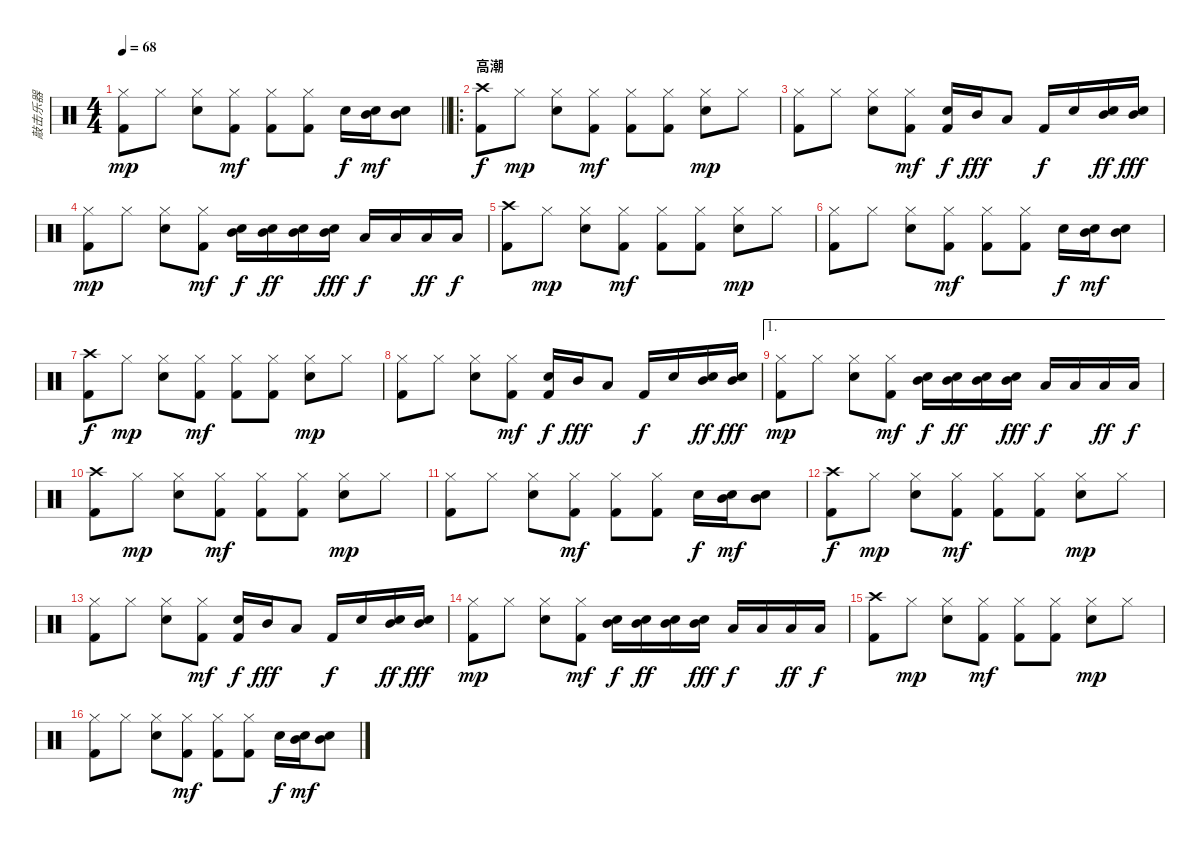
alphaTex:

\track ("敲击乐器" "敲击乐器") {instrument percussion}
\staff {score}
\articulation defaults
\ts (4 4)
\tempo 68
\clef neutral
\barLineRight lightlight
\ks c
("Hi-Hat (closed)" "Kick (hit) 2").8{dy mp} "Hi-Hat (closed)".8 ("Hi-Hat (closed)" "Electric Snare (hit)").8 ("Hi-Hat (closed)" "Kick (hit) 2").8{dy mf} ("Hi-Hat (closed)" "Kick (hit) 2").8 ("Hi-Hat (closed)" "Kick (hit) 2").8 "Electric Snare (hit)".16{dy f} ("Mid Tom (hit)" "Snare (hit) 2").16{dy mf} ("Mid Tom (hit)" "Snare (hit) 2").8 |
\ro
\section ("" "高潮")
("Crash high (hit)" "Kick (hit) 2").8{dy f} "Hi-Hat (closed)".8{dy mp} ("Hi-Hat (closed)" "Electric Snare (hit)").8 ("Hi-Hat (closed)" "Kick (hit) 2").8{dy mf} ("Hi-Hat (closed)" "Kick (hit) 2").8 ("Hi-Hat (closed)" "Kick (hit) 2").8 ("Hi-Hat (closed)" "Electric Snare (hit)").8{dy mp} "Hi-Hat (closed)".8 |
("Hi-Hat (closed)" "Kick (hit) 2").8 "Hi-Hat (closed)".8 ("Hi-Hat (closed)" "Electric Snare (hit)").8 ("Hi-Hat (closed)" "Kick (hit) 2").8{dy mf} ("Electric Snare (hit)" "Kick (hit) 2").16{dy f} "Mid Tom (hit)".16{dy fff} "Low Tom (hit)".8 "Kick (hit) 2".16{dy f} "Snare (hit) 2".16 ("Mid Tom (hit)" "Snare (hit) 2").16{dy ff} ("Mid Tom (hit)" "Snare (hit) 2").16{dy fff} |
("Hi-Hat (closed)" "Kick (hit) 2").8{dy mp} "Hi-Hat (closed)".8 ("Hi-Hat (closed)" "Electric Snare (hit)").8 ("Hi-Hat (closed)" "Kick (hit) 2").8{dy mf} ("Mid Tom (hit)" "Snare (hit) 2").16{dy f} ("Mid Tom (hit)" "Snare (hit) 2").16{dy ff} ("Mid Tom (hit)" "Snare (hit) 2").16 ("Mid Tom (hit)" "Snare (hit) 2").16{dy fff} "Low Tom (hit)".16{dy f} "Low Tom (hit)".16 "Low Tom (hit)".16{dy ff} "Low Tom (hit)".16{dy f} |
("Crash high (hit)" "Kick (hit) 2").8 "Hi-Hat (closed)".8{dy mp} ("Hi-Hat (closed)" "Electric Snare (hit)").8 ("Hi-Hat (closed)" "Kick (hit) 2").8{dy mf} ("Hi-Hat (closed)" "Kick (hit) 2").8 ("Hi-Hat (closed)" "Kick (hit) 2").8 ("Hi-Hat (closed)" "Electric Snare (hit)").8{dy mp} "Hi-Hat (closed)".8 |
("Hi-Hat (closed)" "Kick (hit) 2").8 "Hi-Hat (closed)".8 ("Hi-Hat (closed)" "Electric Snare (hit)").8 ("Hi-Hat (closed)" "Kick (hit) 2").8{dy mf} ("Hi-Hat (closed)" "Kick (hit) 2").8 ("Hi-Hat (closed)" "Kick (hit) 2").8 "Electric Snare (hit)".16{dy f} ("Mid Tom (hit)" "Snare (hit) 2").16{dy mf} ("Mid Tom (hit)" "Snare (hit) 2").8 |
("Crash high (hit)" "Kick (hit) 2").8{dy f} "Hi-Hat (closed)".8{dy mp} ("Hi-Hat (closed)" "Electric Snare (hit)").8 ("Hi-Hat (closed)" "Kick (hit) 2").8{dy mf} ("Hi-Hat (closed)" "Kick (hit) 2").8 ("Hi-Hat (closed)" "Kick (hit) 2").8 ("Hi-Hat (closed)" "Electric Snare (hit)").8{dy mp} "Hi-Hat (closed)".8 |
("Hi-Hat (closed)" "Kick (hit) 2").8 "Hi-Hat (closed)".8 ("Hi-Hat (closed)" "Electric Snare (hit)").8 ("Hi-Hat (closed)" "Kick (hit) 2").8{dy mf} ("Electric Snare (hit)" "Kick (hit) 2").16{dy f} "Mid Tom (hit)".16{dy fff} "Low Tom (hit)".8 "Kick (hit) 2".16{dy f} "Snare (hit) 2".16 ("Mid Tom (hit)" "Snare (hit) 2").16{dy ff} ("Mid Tom (hit)" "Snare (hit) 2").16{dy fff} |
\ae 1
("Hi-Hat (closed)" "Kick (hit) 2").8{dy mp} "Hi-Hat (closed)".8 ("Hi-Hat (closed)" "Electric Snare (hit)").8 ("Hi-Hat (closed)" "Kick (hit) 2").8{dy mf} ("Mid Tom (hit)" "Snare (hit) 2").16{dy f} ("Mid Tom (hit)" "Snare (hit) 2").16{dy ff} ("Mid Tom (hit)" "Snare (hit) 2").16 ("Mid Tom (hit)" "Snare (hit) 2").16{dy fff} "Low Tom (hit)".16{dy f} "Low Tom (hit)".16 "Low Tom (hit)".16{dy ff} "Low Tom (hit)".16{dy f} |
("Crash high (hit)" "Kick (hit) 2").8 "Hi-Hat (closed)".8{dy mp} ("Hi-Hat (closed)" "Electric Snare (hit)").8 ("Hi-Hat (closed)" "Kick (hit) 2").8{dy mf} ("Hi-Hat (closed)" "Kick (hit) 2").8 ("Hi-Hat (closed)" "Kick (hit) 2").8 ("Hi-Hat (closed)" "Electric Snare (hit)").8{dy mp} "Hi-Hat (closed)".8 |
("Hi-Hat (closed)" "Kick (hit) 2").8 "Hi-Hat (closed)".8 ("Hi-Hat (closed)" "Electric Snare (hit)").8 ("Hi-Hat (closed)" "Kick (hit) 2").8{dy mf} ("Hi-Hat (closed)" "Kick (hit) 2").8 ("Hi-Hat (closed)" "Kick (hit) 2").8 "Electric Snare (hit)".16{dy f} ("Mid Tom (hit)" "Snare (hit) 2").16{dy mf} ("Mid Tom (hit)" "Snare (hit) 2").8 |
("Crash high (hit)" "Kick (hit) 2").8{dy f} "Hi-Hat (closed)".8{dy mp} ("Hi-Hat (closed)" "Electric Snare (hit)").8 ("Hi-Hat (closed)" "Kick (hit) 2").8{dy mf} ("Hi-Hat (closed)" "Kick (hit) 2").8 ("Hi-Hat (closed)" "Kick (hit) 2").8 ("Hi-Hat (closed)" "Electric Snare (hit)").8{dy mp} "Hi-Hat (closed)".8 |
("Hi-Hat (closed)" "Kick (hit) 2").8 "Hi-Hat (closed)".8 ("Hi-Hat (closed)" "Electric Snare (hit)").8 ("Hi-Hat (closed)" "Kick (hit) 2").8{dy mf} ("Electric Snare (hit)" "Kick (hit) 2").16{dy f} "Mid Tom (hit)".16{dy fff} "Low Tom (hit)".8 "Kick (hit) 2".16{dy f} "Snare (hit) 2".16 ("Mid Tom (hit)" "Snare (hit) 2").16{dy ff} ("Mid Tom (hit)" "Snare (hit) 2").16{dy fff} |
("Hi-Hat (closed)" "Kick (hit) 2").8{dy mp} "Hi-Hat (closed)".8 ("Hi-Hat (closed)" "Electric Snare (hit)").8 ("Hi-Hat (closed)" "Kick (hit) 2").8{dy mf} ("Mid Tom (hit)" "Snare (hit) 2").16{dy f} ("Mid Tom (hit)" "Snare (hit) 2").16{dy ff} ("Mid Tom (hit)" "Snare (hit) 2").16 ("Mid Tom (hit)" "Snare (hit) 2").16{dy fff} "Low Tom (hit)".16{dy f} "Low Tom (hit)".16 "Low Tom (hit)".16{dy ff} "Low Tom (hit)".16{dy f} |
("Crash high (hit)" "Kick (hit) 2").8 "Hi-Hat (closed)".8{dy mp} ("Hi-Hat (closed)" "Electric Snare (hit)").8 ("Hi-Hat (closed)" "Kick (hit) 2").8{dy mf} ("Hi-Hat (closed)" "Kick (hit) 2").8 ("Hi-Hat (closed)" "Kick (hit) 2").8 ("Hi-Hat (closed)" "Electric Snare (hit)").8{dy mp} "Hi-Hat (closed)".8 |
("Hi-Hat (closed)" "Kick (hit) 2").8 "Hi-Hat (closed)".8 ("Hi-Hat (closed)" "Electric Snare (hit)").8 ("Hi-Hat (closed)" "Kick (hit) 2").8{dy mf} ("Hi-Hat (closed)" "Kick (hit) 2").8 ("Hi-Hat (closed)" "Kick (hit) 2").8 "Electric Snare (hit)".16{dy f} ("Mid Tom (hit)" "Snare (hit) 2").16{dy mf} ("Mid Tom (hit)" "Snare (hit) 2").8
